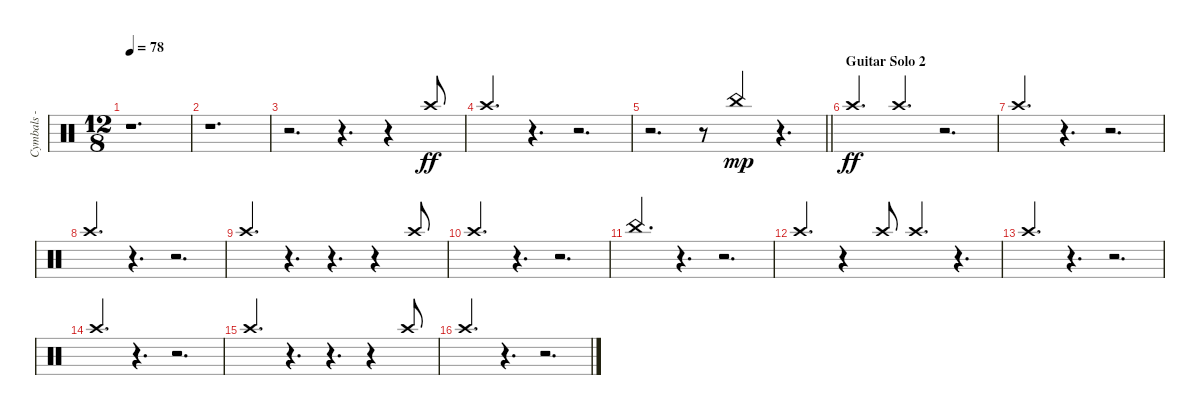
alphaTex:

\track ("Cymbals - crash" "Cymbals - ") {instrument percussion}
\staff {score}
\articulation defaults
\ts (12 8)
\tempo 78
\clef neutral
\ks c
r.1{d dy ff} |
r.1{d} |
r.2{d} r.4{d} r.4 "Crash high (hit)".8{beam Up} |
"Crash high (hit)".4{d beam Up} r.4{d} r.2{d} |
\barLineRight lightlight
r.2{d} r.8{balance 4} "China (hit)".4{dy mp beam Up} r.4{d} |
\section ("" "Guitar Solo 2")
"Crash high (hit)".4{d dy ff beam Up} "Crash high (hit)".4{d beam Up} r.2{d} |
"Crash high (hit)".4{d beam Up} r.4{d} r.2{d} |
"Crash high (hit)".4{d beam Up} r.4{d} r.2{d} |
"Crash high (hit)".4{d beam Up} r.4{d} r.4{d} r.4 "Crash high (hit)".8{beam Up} |
"Crash high (hit)".4{d beam Up} r.4{d} r.2{d} |
"China (hit)".4{d balance 4 beam Up} r.4{d} r.2{d} |
"Crash high (hit)".4{d balance 8 beam Up} r.4 "Crash high (hit)".8{beam Up} "Crash high (hit)".4{d beam Up} r.4{d} |
"Crash high (hit)".4{d beam Up} r.4{d} r.2{d} |
"Crash high (hit)".4{d beam Up} r.4{d} r.2{d} |
"Crash high (hit)".4{d beam Up} r.4{d} r.4{d} r.4 "Crash high (hit)".8{beam Up} |
"Crash high (hit)".4{d beam Up} r.4{d} r.2{d}
